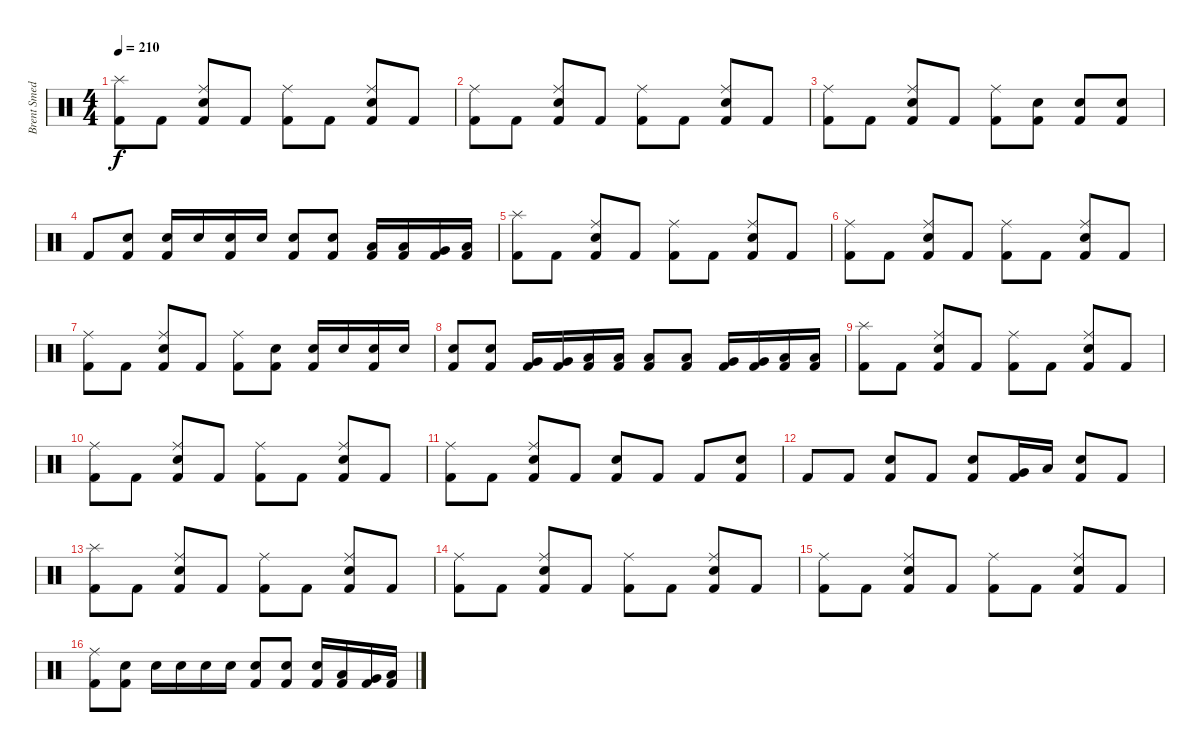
\track ("Brent Smedley" "Brent Smed") {instrument percussion}
\staff {score}
\articulation defaults
\ts (4 4)
\tempo 210
\clef neutral
\ks c
("Splash (hit)" "Kick (hit) 2").8{dy f} "Kick (hit) 2".8 ("Ride (middle)" "Electric Snare (hit)" "Kick (hit) 2").8 "Kick (hit) 2".8 ("Ride (middle)" "Kick (hit) 2").8 "Kick (hit) 2".8 ("Ride (middle)" "Electric Snare (hit)" "Kick (hit) 2").8 "Kick (hit) 2".8 |
("Ride (middle)" "Kick (hit) 2").8 "Kick (hit) 2".8 ("Ride (middle)" "Electric Snare (hit)" "Kick (hit) 2").8 "Kick (hit) 2".8 ("Ride (middle)" "Kick (hit) 2").8 "Kick (hit) 2".8 ("Ride (middle)" "Electric Snare (hit)" "Kick (hit) 2").8 "Kick (hit) 2".8 |
("Ride (middle)" "Kick (hit) 2").8 "Kick (hit) 2".8 ("Ride (middle)" "Electric Snare (hit)" "Kick (hit) 2").8 "Kick (hit) 2".8 ("Ride (middle)" "Kick (hit) 2").8 ("Electric Snare (hit)" "Kick (hit) 2").8 ("Electric Snare (hit)" "Kick (hit) 2").8 ("Electric Snare (hit)" "Kick (hit) 2").8 |
"Kick (hit) 2".8 ("Electric Snare (hit)" "Kick (hit) 2").8 ("Electric Snare (hit)" "Kick (hit) 2").16 "Electric Snare (hit)".16 ("Electric Snare (hit)" "Kick (hit) 2").16 "Electric Snare (hit)".16 ("Electric Snare (hit)" "Kick (hit) 2").8 ("Electric Snare (hit)" "Kick (hit) 2").8 ("Low Tom (hit)" "Kick (hit) 2").16 ("Low Tom (hit)" "Kick (hit) 2").16 ("Very Low Tom (hit)" "Kick (hit) 2").16 ("Low Floor Tom (hit)" "Kick (hit) 2").16 |
("Splash (hit)" "Kick (hit) 2").8 "Kick (hit) 2".8 ("Ride (middle)" "Electric Snare (hit)" "Kick (hit) 2").8 "Kick (hit) 2".8 ("Ride (middle)" "Kick (hit) 2").8 "Kick (hit) 2".8 ("Ride (middle)" "Electric Snare (hit)" "Kick (hit) 2").8 "Kick (hit) 2".8 |
("Ride (middle)" "Kick (hit) 2").8 "Kick (hit) 2".8 ("Ride (middle)" "Electric Snare (hit)" "Kick (hit) 2").8 "Kick (hit) 2".8 ("Ride (middle)" "Kick (hit) 2").8 "Kick (hit) 2".8 ("Ride (middle)" "Electric Snare (hit)" "Kick (hit) 2").8 "Kick (hit) 2".8 |
("Ride (middle)" "Kick (hit) 2").8 "Kick (hit) 2".8 ("Ride (middle)" "Electric Snare (hit)" "Kick (hit) 2").8 "Kick (hit) 2".8 ("Ride (middle)" "Kick (hit) 2").8 ("Electric Snare (hit)" "Kick (hit) 2").8 ("Electric Snare (hit)" "Kick (hit) 2").16 "Electric Snare (hit)".16 ("Electric Snare (hit)" "Kick (hit) 2").16 "Electric Snare (hit)".16 |
("Electric Snare (hit)" "Kick (hit) 2").8 ("Electric Snare (hit)" "Kick (hit) 2").8 ("Very Low Tom (hit)" "Kick (hit) 2").16 ("Very Low Tom (hit)" "Kick (hit) 2").16 ("Low Floor Tom (hit)" "Kick (hit) 2").16 ("Low Floor Tom (hit)" "Kick (hit) 2").16 ("Low Floor Tom (hit)" "Kick (hit) 2").8 ("Low Floor Tom (hit)" "Kick (hit) 2").8 ("Very Low Tom (hit)" "Kick (hit) 2").16 ("Very Low Tom (hit)" "Kick (hit) 2").16 ("Low Floor Tom (hit)" "Kick (hit) 2").16 ("Low Floor Tom (hit)" "Kick (hit) 2").16 |
("Splash (hit)" "Kick (hit) 2").8 "Kick (hit) 2".8 ("Ride (middle)" "Electric Snare (hit)" "Kick (hit) 2").8 "Kick (hit) 2".8 ("Ride (middle)" "Kick (hit) 2").8 "Kick (hit) 2".8 ("Ride (middle)" "Electric Snare (hit)" "Kick (hit) 2").8 "Kick (hit) 2".8 |
("Ride (middle)" "Kick (hit) 2").8 "Kick (hit) 2".8 ("Ride (middle)" "Electric Snare (hit)" "Kick (hit) 2").8 "Kick (hit) 2".8 ("Ride (middle)" "Kick (hit) 2").8 "Kick (hit) 2".8 ("Ride (middle)" "Electric Snare (hit)" "Kick (hit) 2").8 "Kick (hit) 2".8 |
("Ride (middle)" "Kick (hit) 2").8 "Kick (hit) 2".8 ("Ride (middle)" "Electric Snare (hit)" "Kick (hit) 2").8 "Kick (hit) 2".8 ("Electric Snare (hit)" "Kick (hit) 2").8 "Kick (hit) 2".8 "Kick (hit) 2".8 ("Electric Snare (hit)" "Kick (hit) 2").8 |
"Kick (hit) 2".8 "Kick (hit) 2".8 ("Electric Snare (hit)" "Kick (hit) 2").8 "Kick (hit) 2".8 ("Electric Snare (hit)" "Kick (hit) 2").8 ("Very Low Tom (hit)" "Kick (hit) 2").16 "Low Floor Tom (hit)".16 ("Electric Snare (hit)" "Kick (hit) 2").8 "Kick (hit) 2".8 |
("Splash (hit)" "Kick (hit) 2").8 "Kick (hit) 2".8 ("Ride (middle)" "Electric Snare (hit)" "Kick (hit) 2").8 "Kick (hit) 2".8 ("Ride (middle)" "Kick (hit) 2").8 "Kick (hit) 2".8 ("Ride (middle)" "Electric Snare (hit)" "Kick (hit) 2").8 "Kick (hit) 2".8 |
("Ride (middle)" "Kick (hit) 2").8 "Kick (hit) 2".8 ("Ride (middle)" "Electric Snare (hit)" "Kick (hit) 2").8 "Kick (hit) 2".8 ("Ride (middle)" "Kick (hit) 2").8 "Kick (hit) 2".8 ("Ride (middle)" "Electric Snare (hit)" "Kick (hit) 2").8 "Kick (hit) 2".8 |
("Ride (middle)" "Kick (hit) 2").8 "Kick (hit) 2".8 ("Ride (middle)" "Electric Snare (hit)" "Kick (hit) 2").8 "Kick (hit) 2".8 ("Ride (middle)" "Kick (hit) 2").8 "Kick (hit) 2".8 ("Ride (middle)" "Electric Snare (hit)" "Kick (hit) 2").8 "Kick (hit) 2".8 |
("Ride (middle)" "Kick (hit) 2").8 ("Electric Snare (hit)" "Kick (hit) 2").8 "Electric Snare (hit)".16 "Electric Snare (hit)".16 "Electric Snare (hit)".16 "Electric Snare (hit)".16 ("Electric Snare (hit)" "Kick (hit) 2").8 ("Electric Snare (hit)" "Kick (hit) 2").8 ("Electric Snare (hit)" "Kick (hit) 2").16 ("Low Tom (hit)" "Kick (hit) 2").16 ("Very Low Tom (hit)" "Kick (hit) 2").16 ("Low Floor Tom (hit)" "Kick (hit) 2").16
